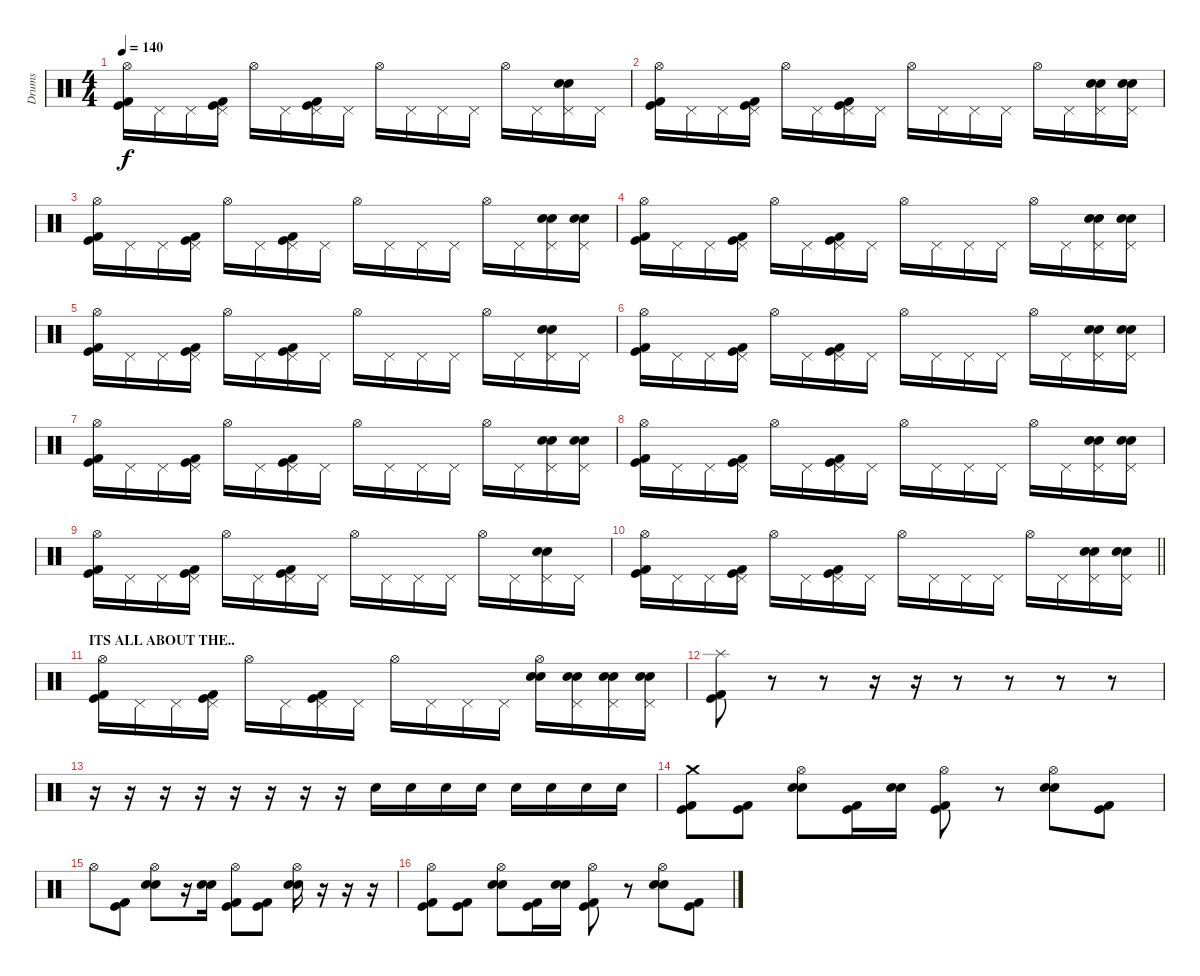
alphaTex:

\track ("Drums" "Drums") {instrument percussion}
\staff {score}
\articulation defaults
\ts (4 4)
\tempo 140
\clef neutral
\ks c
("Hi-Hat (open)" "Kick (hit) 2" "Kick (hit)").16{dy f} "Pedal Hi-Hat (hit)".16 "Pedal Hi-Hat (hit)".16 ("Pedal Hi-Hat (hit)" "Kick (hit) 2" "Kick (hit)").16 "Hi-Hat (open)".16 "Pedal Hi-Hat (hit)".16 ("Pedal Hi-Hat (hit)" "Kick (hit) 2" "Kick (hit)").16 "Pedal Hi-Hat (hit)".16 "Hi-Hat (open)".16 "Pedal Hi-Hat (hit)".16 "Pedal Hi-Hat (hit)".16 "Pedal Hi-Hat (hit)".16 "Hi-Hat (open)".16 "Pedal Hi-Hat (hit)".16 ("Pedal Hi-Hat (hit)" "Electric Snare (hit)" "Electric Snare (hit)").16 "Pedal Hi-Hat (hit)".16 |
("Hi-Hat (open)" "Kick (hit) 2" "Kick (hit)").16 "Pedal Hi-Hat (hit)".16 "Pedal Hi-Hat (hit)".16 ("Pedal Hi-Hat (hit)" "Kick (hit) 2" "Kick (hit)").16 "Hi-Hat (open)".16 "Pedal Hi-Hat (hit)".16 ("Pedal Hi-Hat (hit)" "Kick (hit) 2" "Kick (hit)").16 "Pedal Hi-Hat (hit)".16 "Hi-Hat (open)".16 "Pedal Hi-Hat (hit)".16 "Pedal Hi-Hat (hit)".16 "Pedal Hi-Hat (hit)".16 "Hi-Hat (open)".16 "Pedal Hi-Hat (hit)".16 ("Pedal Hi-Hat (hit)" "Electric Snare (hit)" "Electric Snare (hit)").16 ("Pedal Hi-Hat (hit)" "Electric Snare (hit)" "Electric Snare (hit)").16 |
("Hi-Hat (open)" "Kick (hit) 2" "Kick (hit)").16 "Pedal Hi-Hat (hit)".16 "Pedal Hi-Hat (hit)".16 ("Pedal Hi-Hat (hit)" "Kick (hit) 2" "Kick (hit)").16 "Hi-Hat (open)".16 "Pedal Hi-Hat (hit)".16 ("Pedal Hi-Hat (hit)" "Kick (hit) 2" "Kick (hit)").16 "Pedal Hi-Hat (hit)".16 "Hi-Hat (open)".16 "Pedal Hi-Hat (hit)".16 "Pedal Hi-Hat (hit)".16 "Pedal Hi-Hat (hit)".16 "Hi-Hat (open)".16 "Pedal Hi-Hat (hit)".16 ("Pedal Hi-Hat (hit)" "Electric Snare (hit)" "Electric Snare (hit)").16 ("Pedal Hi-Hat (hit)" "Electric Snare (hit)" "Electric Snare (hit)").16 |
("Hi-Hat (open)" "Kick (hit) 2" "Kick (hit)").16 "Pedal Hi-Hat (hit)".16 "Pedal Hi-Hat (hit)".16 ("Pedal Hi-Hat (hit)" "Kick (hit) 2" "Kick (hit)").16 "Hi-Hat (open)".16 "Pedal Hi-Hat (hit)".16 ("Pedal Hi-Hat (hit)" "Kick (hit) 2" "Kick (hit)").16 "Pedal Hi-Hat (hit)".16 "Hi-Hat (open)".16 "Pedal Hi-Hat (hit)".16 "Pedal Hi-Hat (hit)".16 "Pedal Hi-Hat (hit)".16 "Hi-Hat (open)".16 "Pedal Hi-Hat (hit)".16 ("Pedal Hi-Hat (hit)" "Electric Snare (hit)" "Electric Snare (hit)").16 ("Pedal Hi-Hat (hit)" "Electric Snare (hit)" "Electric Snare (hit)").16 |
("Hi-Hat (open)" "Kick (hit) 2" "Kick (hit)").16 "Pedal Hi-Hat (hit)".16 "Pedal Hi-Hat (hit)".16 ("Pedal Hi-Hat (hit)" "Kick (hit) 2" "Kick (hit)").16 "Hi-Hat (open)".16 "Pedal Hi-Hat (hit)".16 ("Pedal Hi-Hat (hit)" "Kick (hit) 2" "Kick (hit)").16 "Pedal Hi-Hat (hit)".16 "Hi-Hat (open)".16 "Pedal Hi-Hat (hit)".16 "Pedal Hi-Hat (hit)".16 "Pedal Hi-Hat (hit)".16 "Hi-Hat (open)".16 "Pedal Hi-Hat (hit)".16 ("Pedal Hi-Hat (hit)" "Electric Snare (hit)" "Electric Snare (hit)").16 "Pedal Hi-Hat (hit)".16 |
("Hi-Hat (open)" "Kick (hit) 2" "Kick (hit)").16 "Pedal Hi-Hat (hit)".16 "Pedal Hi-Hat (hit)".16 ("Pedal Hi-Hat (hit)" "Kick (hit) 2" "Kick (hit)").16 "Hi-Hat (open)".16 "Pedal Hi-Hat (hit)".16 ("Pedal Hi-Hat (hit)" "Kick (hit) 2" "Kick (hit)").16 "Pedal Hi-Hat (hit)".16 "Hi-Hat (open)".16 "Pedal Hi-Hat (hit)".16 "Pedal Hi-Hat (hit)".16 "Pedal Hi-Hat (hit)".16 "Hi-Hat (open)".16 "Pedal Hi-Hat (hit)".16 ("Pedal Hi-Hat (hit)" "Electric Snare (hit)" "Electric Snare (hit)").16 ("Pedal Hi-Hat (hit)" "Electric Snare (hit)" "Electric Snare (hit)").16 |
("Hi-Hat (open)" "Kick (hit) 2" "Kick (hit)").16 "Pedal Hi-Hat (hit)".16 "Pedal Hi-Hat (hit)".16 ("Pedal Hi-Hat (hit)" "Kick (hit) 2" "Kick (hit)").16 "Hi-Hat (open)".16 "Pedal Hi-Hat (hit)".16 ("Pedal Hi-Hat (hit)" "Kick (hit) 2" "Kick (hit)").16 "Pedal Hi-Hat (hit)".16 "Hi-Hat (open)".16 "Pedal Hi-Hat (hit)".16 "Pedal Hi-Hat (hit)".16 "Pedal Hi-Hat (hit)".16 "Hi-Hat (open)".16 "Pedal Hi-Hat (hit)".16 ("Pedal Hi-Hat (hit)" "Electric Snare (hit)" "Electric Snare (hit)").16 ("Pedal Hi-Hat (hit)" "Electric Snare (hit)" "Electric Snare (hit)").16 |
("Hi-Hat (open)" "Kick (hit) 2" "Kick (hit)").16 "Pedal Hi-Hat (hit)".16 "Pedal Hi-Hat (hit)".16 ("Pedal Hi-Hat (hit)" "Kick (hit) 2" "Kick (hit)").16 "Hi-Hat (open)".16 "Pedal Hi-Hat (hit)".16 ("Pedal Hi-Hat (hit)" "Kick (hit) 2" "Kick (hit)").16 "Pedal Hi-Hat (hit)".16 "Hi-Hat (open)".16 "Pedal Hi-Hat (hit)".16 "Pedal Hi-Hat (hit)".16 "Pedal Hi-Hat (hit)".16 "Hi-Hat (open)".16 "Pedal Hi-Hat (hit)".16 ("Pedal Hi-Hat (hit)" "Electric Snare (hit)" "Electric Snare (hit)").16 ("Pedal Hi-Hat (hit)" "Electric Snare (hit)" "Electric Snare (hit)").16 |
("Hi-Hat (open)" "Kick (hit) 2" "Kick (hit)").16 "Pedal Hi-Hat (hit)".16 "Pedal Hi-Hat (hit)".16 ("Pedal Hi-Hat (hit)" "Kick (hit) 2" "Kick (hit)").16 "Hi-Hat (open)".16 "Pedal Hi-Hat (hit)".16 ("Pedal Hi-Hat (hit)" "Kick (hit) 2" "Kick (hit)").16 "Pedal Hi-Hat (hit)".16 "Hi-Hat (open)".16 "Pedal Hi-Hat (hit)".16 "Pedal Hi-Hat (hit)".16 "Pedal Hi-Hat (hit)".16 "Hi-Hat (open)".16 "Pedal Hi-Hat (hit)".16 ("Pedal Hi-Hat (hit)" "Electric Snare (hit)" "Electric Snare (hit)").16 "Pedal Hi-Hat (hit)".16 |
\barLineRight lightlight
("Hi-Hat (open)" "Kick (hit) 2" "Kick (hit)").16 "Pedal Hi-Hat (hit)".16 "Pedal Hi-Hat (hit)".16 ("Pedal Hi-Hat (hit)" "Kick (hit) 2" "Kick (hit)").16 "Hi-Hat (open)".16 "Pedal Hi-Hat (hit)".16 ("Pedal Hi-Hat (hit)" "Kick (hit) 2" "Kick (hit)").16 "Pedal Hi-Hat (hit)".16 "Hi-Hat (open)".16 "Pedal Hi-Hat (hit)".16 "Pedal Hi-Hat (hit)".16 "Pedal Hi-Hat (hit)".16 "Hi-Hat (open)".16 "Pedal Hi-Hat (hit)".16 ("Pedal Hi-Hat (hit)" "Electric Snare (hit)" "Electric Snare (hit)").16 ("Pedal Hi-Hat (hit)" "Electric Snare (hit)" "Electric Snare (hit)").16 |
\section ("" "ITS ALL ABOUT THE..")
("Hi-Hat (open)" "Kick (hit) 2" "Kick (hit)").16 "Pedal Hi-Hat (hit)".16 "Pedal Hi-Hat (hit)".16 ("Pedal Hi-Hat (hit)" "Kick (hit) 2" "Kick (hit)").16 "Hi-Hat (open)".16 "Pedal Hi-Hat (hit)".16 ("Pedal Hi-Hat (hit)" "Kick (hit) 2" "Kick (hit)").16 "Pedal Hi-Hat (hit)".16 "Hi-Hat (open)".16 "Pedal Hi-Hat (hit)".16 "Pedal Hi-Hat (hit)".16 "Pedal Hi-Hat (hit)".16 ("Hi-Hat (open)" "Electric Snare (hit)" "Electric Snare (hit)").16 ("Pedal Hi-Hat (hit)" "Electric Snare (hit)" "Electric Snare (hit)").16 ("Pedal Hi-Hat (hit)" "Electric Snare (hit)" "Electric Snare (hit)").16 ("Pedal Hi-Hat (hit)" "Electric Snare (hit)" "Electric Snare (hit)").16 |
("Splash (hit)" "Kick (hit) 2" "Kick (hit)").8 r.8 r.8 r.16 r.16 r.8 r.8 r.8 r.8 |
r.16 r.16 r.16 r.16 r.16 r.16 r.16 r.16 "Electric Snare (hit)".16 "Electric Snare (hit)".16 "Electric Snare (hit)".16 "Electric Snare (hit)".16 "Electric Snare (hit)".16 "Electric Snare (hit)".16 "Electric Snare (hit)".16 "Electric Snare (hit)".16 |
("Crash medium (hit)" "Kick (hit) 2" "Kick (hit)").8 ("Kick (hit) 2" "Kick (hit)").8 ("Hi-Hat (open)" "Electric Snare (hit)" "Electric Snare (hit)").8 ("Kick (hit) 2" "Kick (hit)").16 ("Electric Snare (hit)" "Electric Snare (hit)").16 ("Hi-Hat (open)" "Kick (hit) 2" "Kick (hit)").8 r.8 ("Hi-Hat (open)" "Electric Snare (hit)" "Electric Snare (hit)").8 ("Kick (hit)" "Kick (hit) 2").8 |
"Hi-Hat (open)".8 ("Kick (hit) 2" "Kick (hit)").8 ("Hi-Hat (open)" "Electric Snare (hit)" "Electric Snare (hit)").8 r.16 ("Electric Snare (hit)" "Electric Snare (hit)").16 ("Hi-Hat (open)" "Kick (hit) 2" "Kick (hit)").8 ("Kick (hit) 2" "Kick (hit)").8 ("Hi-Hat (open)" "Electric Snare (hit)" "Electric Snare (hit)").16 r.16 r.16 r.16 |
("Hi-Hat (open)" "Kick (hit) 2" "Kick (hit)").8 ("Kick (hit) 2" "Kick (hit)").8 ("Hi-Hat (open)" "Electric Snare (hit)" "Electric Snare (hit)").8 ("Kick (hit) 2" "Kick (hit)").16 ("Electric Snare (hit)" "Electric Snare (hit)").16 ("Hi-Hat (open)" "Kick (hit) 2" "Kick (hit)").8 r.8 ("Hi-Hat (open)" "Electric Snare (hit)" "Electric Snare (hit)").8 ("Kick (hit)" "Kick (hit) 2").8
